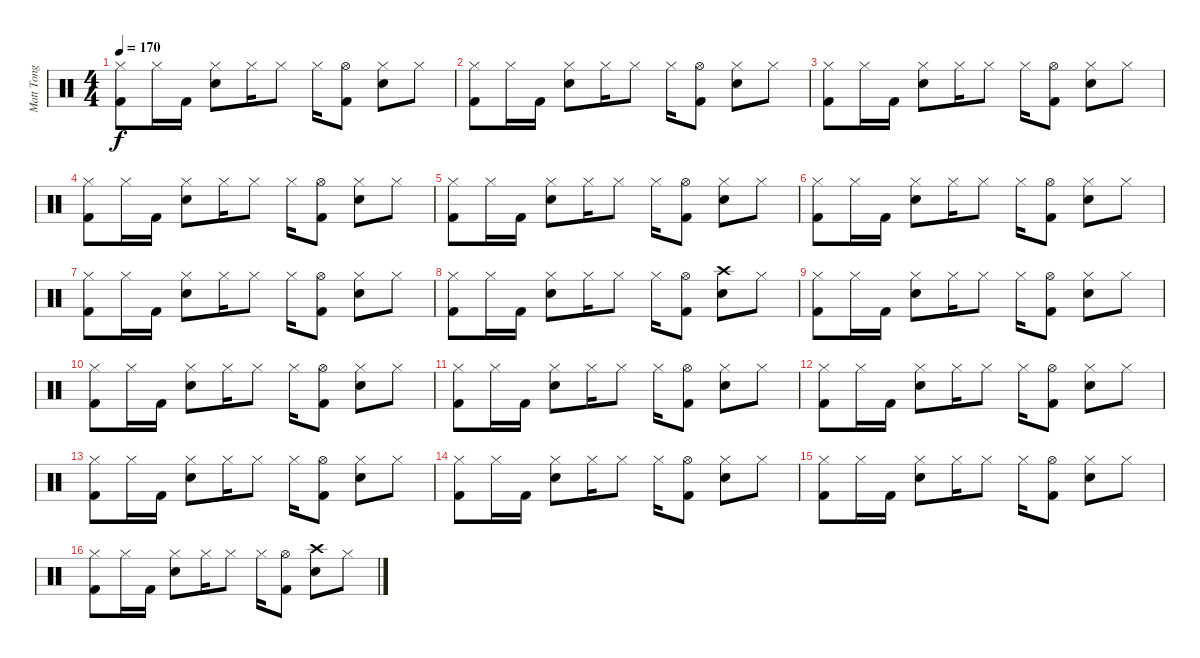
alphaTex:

\track ("Matt Tong" "Matt Tong") {instrument percussion}
\staff {score}
\articulation defaults
\ts (4 4)
\tempo 170
\clef neutral
\ks c
("Hi-Hat (closed)" "Kick (hit) 2").8{dy f} "Hi-Hat (closed)".16 "Kick (hit) 2".16 ("Hi-Hat (closed)" "Electric Snare (hit)").8 "Hi-Hat (closed)".16 "Hi-Hat (closed)".8 "Hi-Hat (closed)".16 ("Hi-Hat (open)" "Kick (hit) 2").8 ("Hi-Hat (closed)" "Electric Snare (hit)").8 "Hi-Hat (closed)".8 |
("Hi-Hat (closed)" "Kick (hit) 2").8 "Hi-Hat (closed)".16 "Kick (hit) 2".16 ("Hi-Hat (closed)" "Electric Snare (hit)").8 "Hi-Hat (closed)".16 "Hi-Hat (closed)".8 "Hi-Hat (closed)".16 ("Hi-Hat (open)" "Kick (hit) 2").8 ("Hi-Hat (closed)" "Electric Snare (hit)").8 "Hi-Hat (closed)".8 |
("Hi-Hat (closed)" "Kick (hit) 2").8 "Hi-Hat (closed)".16 "Kick (hit) 2".16 ("Hi-Hat (closed)" "Electric Snare (hit)").8 "Hi-Hat (closed)".16 "Hi-Hat (closed)".8 "Hi-Hat (closed)".16 ("Hi-Hat (open)" "Kick (hit) 2").8 ("Hi-Hat (closed)" "Electric Snare (hit)").8 "Hi-Hat (closed)".8 |
("Hi-Hat (closed)" "Kick (hit) 2").8 "Hi-Hat (closed)".16 "Kick (hit) 2".16 ("Hi-Hat (closed)" "Electric Snare (hit)").8 "Hi-Hat (closed)".16 "Hi-Hat (closed)".8 "Hi-Hat (closed)".16 ("Hi-Hat (open)" "Kick (hit) 2").8 ("Hi-Hat (closed)" "Electric Snare (hit)").8 "Hi-Hat (closed)".8 |
("Hi-Hat (closed)" "Kick (hit) 2").8 "Hi-Hat (closed)".16 "Kick (hit) 2".16 ("Hi-Hat (closed)" "Electric Snare (hit)").8 "Hi-Hat (closed)".16 "Hi-Hat (closed)".8 "Hi-Hat (closed)".16 ("Hi-Hat (open)" "Kick (hit) 2").8 ("Hi-Hat (closed)" "Electric Snare (hit)").8 "Hi-Hat (closed)".8 |
("Hi-Hat (closed)" "Kick (hit) 2").8 "Hi-Hat (closed)".16 "Kick (hit) 2".16 ("Hi-Hat (closed)" "Electric Snare (hit)").8 "Hi-Hat (closed)".16 "Hi-Hat (closed)".8 "Hi-Hat (closed)".16 ("Hi-Hat (open)" "Kick (hit) 2").8 ("Hi-Hat (closed)" "Electric Snare (hit)").8 "Hi-Hat (closed)".8 |
("Hi-Hat (closed)" "Kick (hit) 2").8 "Hi-Hat (closed)".16 "Kick (hit) 2".16 ("Hi-Hat (closed)" "Electric Snare (hit)").8 "Hi-Hat (closed)".16 "Hi-Hat (closed)".8 "Hi-Hat (closed)".16 ("Hi-Hat (open)" "Kick (hit) 2").8 ("Hi-Hat (closed)" "Electric Snare (hit)").8 "Hi-Hat (closed)".8 |
("Hi-Hat (closed)" "Kick (hit) 2").8 "Hi-Hat (closed)".16 "Kick (hit) 2".16 ("Hi-Hat (closed)" "Electric Snare (hit)").8 "Hi-Hat (closed)".16 "Hi-Hat (closed)".8 "Hi-Hat (closed)".16 ("Hi-Hat (open)" "Kick (hit) 2").8 ("Crash high (hit)" "Electric Snare (hit)").8 "Hi-Hat (closed)".8 |
("Hi-Hat (closed)" "Kick (hit) 2").8 "Hi-Hat (closed)".16 "Kick (hit) 2".16 ("Hi-Hat (closed)" "Electric Snare (hit)").8 "Hi-Hat (closed)".16 "Hi-Hat (closed)".8 "Hi-Hat (closed)".16 ("Hi-Hat (open)" "Kick (hit) 2").8 ("Hi-Hat (closed)" "Electric Snare (hit)").8 "Hi-Hat (closed)".8 |
("Hi-Hat (closed)" "Kick (hit) 2").8 "Hi-Hat (closed)".16 "Kick (hit) 2".16 ("Hi-Hat (closed)" "Electric Snare (hit)").8 "Hi-Hat (closed)".16 "Hi-Hat (closed)".8 "Hi-Hat (closed)".16 ("Hi-Hat (open)" "Kick (hit) 2").8 ("Hi-Hat (closed)" "Electric Snare (hit)").8 "Hi-Hat (closed)".8 |
("Hi-Hat (closed)" "Kick (hit) 2").8 "Hi-Hat (closed)".16 "Kick (hit) 2".16 ("Hi-Hat (closed)" "Electric Snare (hit)").8 "Hi-Hat (closed)".16 "Hi-Hat (closed)".8 "Hi-Hat (closed)".16 ("Hi-Hat (open)" "Kick (hit) 2").8 ("Hi-Hat (closed)" "Electric Snare (hit)").8 "Hi-Hat (closed)".8 |
("Hi-Hat (closed)" "Kick (hit) 2").8 "Hi-Hat (closed)".16 "Kick (hit) 2".16 ("Hi-Hat (closed)" "Electric Snare (hit)").8 "Hi-Hat (closed)".16 "Hi-Hat (closed)".8 "Hi-Hat (closed)".16 ("Hi-Hat (open)" "Kick (hit) 2").8 ("Hi-Hat (closed)" "Electric Snare (hit)").8 "Hi-Hat (closed)".8 |
("Hi-Hat (closed)" "Kick (hit) 2").8 "Hi-Hat (closed)".16 "Kick (hit) 2".16 ("Hi-Hat (closed)" "Electric Snare (hit)").8 "Hi-Hat (closed)".16 "Hi-Hat (closed)".8 "Hi-Hat (closed)".16 ("Hi-Hat (open)" "Kick (hit) 2").8 ("Hi-Hat (closed)" "Electric Snare (hit)").8 "Hi-Hat (closed)".8 |
("Hi-Hat (closed)" "Kick (hit) 2").8 "Hi-Hat (closed)".16 "Kick (hit) 2".16 ("Hi-Hat (closed)" "Electric Snare (hit)").8 "Hi-Hat (closed)".16 "Hi-Hat (closed)".8 "Hi-Hat (closed)".16 ("Hi-Hat (open)" "Kick (hit) 2").8 ("Hi-Hat (closed)" "Electric Snare (hit)").8 "Hi-Hat (closed)".8 |
("Hi-Hat (closed)" "Kick (hit) 2").8 "Hi-Hat (closed)".16 "Kick (hit) 2".16 ("Hi-Hat (closed)" "Electric Snare (hit)").8 "Hi-Hat (closed)".16 "Hi-Hat (closed)".8 "Hi-Hat (closed)".16 ("Hi-Hat (open)" "Kick (hit) 2").8 ("Hi-Hat (closed)" "Electric Snare (hit)").8 "Hi-Hat (closed)".8 |
("Hi-Hat (closed)" "Kick (hit) 2").8 "Hi-Hat (closed)".16 "Kick (hit) 2".16 ("Hi-Hat (closed)" "Electric Snare (hit)").8 "Hi-Hat (closed)".16 "Hi-Hat (closed)".8 "Hi-Hat (closed)".16 ("Hi-Hat (open)" "Kick (hit) 2").8 ("Crash high (hit)" "Electric Snare (hit)").8 "Hi-Hat (closed)".8
